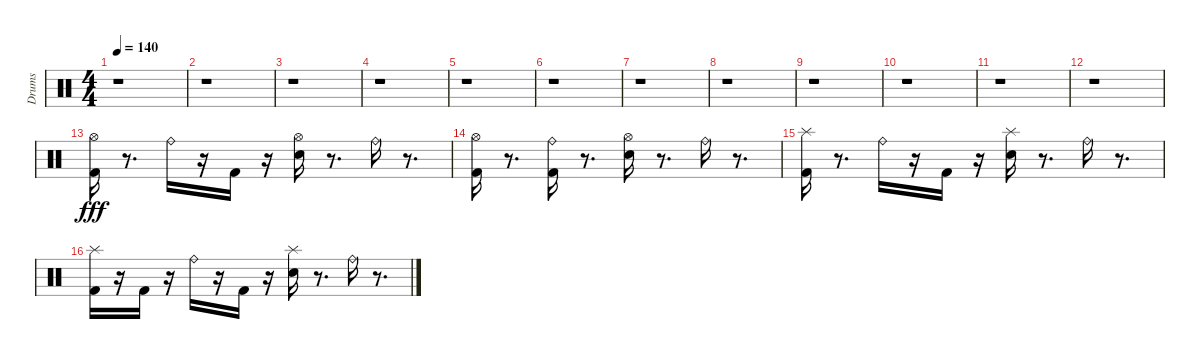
\track ("Drums" "Drums") {instrument percussion}
\staff {score}
\articulation defaults
\ts (4 4)
\tempo 140
\clef neutral
\ks c
r.1{dy fff} |
r.1 |
r.1 |
r.1 |
r.1 |
r.1 |
r.1 |
r.1 |
r.1 |
r.1 |
r.1 |
r.1 |
("Kick (hit) 2" "Hi-Hat (open)").16 r.8{d} "Ride (bell)".16 r.16 "Kick (hit) 2".16 r.16 ("Snare (hit) 2" "Hi-Hat (open)").16 r.8{d} "Ride (bell)".16 r.8{d} |
("Kick (hit) 2" "Hi-Hat (open)").16 r.8{d} ("Kick (hit) 2" "Ride (bell)").16 r.8{d} ("Snare (hit) 2" "Hi-Hat (open)").16 r.8{d} "Ride (bell)".16 r.8{d} |
("Kick (hit) 2" "Splash (hit)").16 r.8{d} "Ride (bell)".16 r.16 "Kick (hit) 2".16 r.16 ("Snare (hit) 2" "Splash (hit)").16 r.8{d} "Ride (bell)".16 r.8{d} |
("Kick (hit) 2" "Splash (hit)").16 r.16 "Kick (hit) 2".16 r.16 "Ride (bell)".16 r.16 "Kick (hit) 2".16 r.16 ("Snare (hit) 2" "Splash (hit)").16 r.8{d} "Ride (bell)".16 r.8{d}
